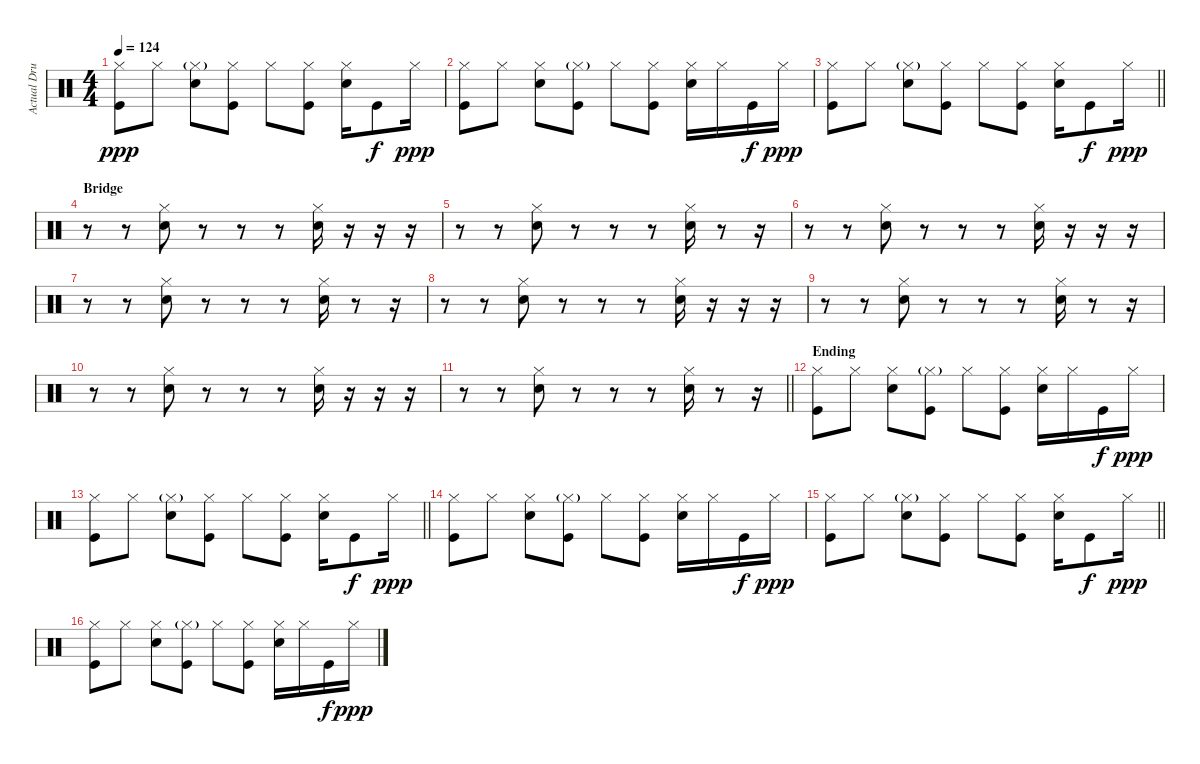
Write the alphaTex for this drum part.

\track ("Actual Drums" "Actual Dru") {instrument percussion}
\staff {score}
\articulation defaults
\ts (4 4)
\tempo 124
\clef neutral
\ks c
("Hi-Hat (closed)" "Kick (hit)").8{dy ppp} "Hi-Hat (closed)".8 ("Hi-Hat (closed)"{g} "Snare (hit) 2").8 ("Hi-Hat (closed)" "Kick (hit)").8 "Hi-Hat (closed)".8 ("Hi-Hat (closed)" "Kick (hit)").8 ("Hi-Hat (closed)" "Snare (hit) 2").16 "Kick (hit)".8{dy f} "Hi-Hat (closed)".16{dy ppp} |
("Hi-Hat (closed)" "Kick (hit)").8 "Hi-Hat (closed)".8 ("Hi-Hat (closed)" "Snare (hit) 2").8 ("Hi-Hat (closed)"{g} "Kick (hit)").8 "Hi-Hat (closed)".8 ("Hi-Hat (closed)" "Kick (hit)").8 ("Hi-Hat (closed)" "Snare (hit) 2").16 "Hi-Hat (closed)".16 "Kick (hit)".16{dy f} "Hi-Hat (closed)".16{dy ppp} |
\barLineRight lightlight
("Hi-Hat (closed)" "Kick (hit)").8 "Hi-Hat (closed)".8 ("Hi-Hat (closed)"{g} "Snare (hit) 2").8 ("Hi-Hat (closed)" "Kick (hit)").8 "Hi-Hat (closed)".8 ("Hi-Hat (closed)" "Kick (hit)").8 ("Hi-Hat (closed)" "Snare (hit) 2").16 "Kick (hit)".8{dy f} "Hi-Hat (closed)".16{dy ppp} |
\section ("" "Bridge")
r.8 r.8 ("Hi-Hat (closed)" "Snare (hit) 2").8 r.8 r.8 r.8 ("Hi-Hat (closed)" "Snare (hit) 2").16 r.16 r.16 r.16 |
r.8 r.8 ("Hi-Hat (closed)" "Snare (hit) 2").8 r.8 r.8 r.8 ("Hi-Hat (closed)" "Snare (hit) 2").16 r.8 r.16 |
r.8 r.8 ("Hi-Hat (closed)" "Snare (hit) 2").8 r.8 r.8 r.8 ("Hi-Hat (closed)" "Snare (hit) 2").16 r.16 r.16 r.16 |
r.8 r.8 ("Hi-Hat (closed)" "Snare (hit) 2").8 r.8 r.8 r.8 ("Hi-Hat (closed)" "Snare (hit) 2").16 r.8 r.16 |
r.8 r.8 ("Hi-Hat (closed)" "Snare (hit) 2").8 r.8 r.8 r.8 ("Hi-Hat (closed)" "Snare (hit) 2").16 r.16 r.16 r.16 |
r.8 r.8 ("Hi-Hat (closed)" "Snare (hit) 2").8 r.8 r.8 r.8 ("Hi-Hat (closed)" "Snare (hit) 2").16 r.8 r.16 |
r.8 r.8 ("Hi-Hat (closed)" "Snare (hit) 2").8 r.8 r.8 r.8 ("Hi-Hat (closed)" "Snare (hit) 2").16 r.16 r.16 r.16 |
\barLineRight lightlight
r.8 r.8 ("Hi-Hat (closed)" "Snare (hit) 2").8 r.8 r.8 r.8 ("Hi-Hat (closed)" "Snare (hit) 2").16 r.8 r.16 |
\section ("" "Ending")
("Hi-Hat (closed)" "Kick (hit)").8 "Hi-Hat (closed)".8 ("Hi-Hat (closed)" "Snare (hit) 2").8 ("Hi-Hat (closed)"{g} "Kick (hit)").8 "Hi-Hat (closed)".8 ("Hi-Hat (closed)" "Kick (hit)").8 ("Hi-Hat (closed)" "Snare (hit) 2").16 "Hi-Hat (closed)".16 "Kick (hit)".16{dy f} "Hi-Hat (closed)".16{dy ppp} |
\barLineRight lightlight
("Hi-Hat (closed)" "Kick (hit)").8 "Hi-Hat (closed)".8 ("Hi-Hat (closed)"{g} "Snare (hit) 2").8 ("Hi-Hat (closed)" "Kick (hit)").8 "Hi-Hat (closed)".8 ("Hi-Hat (closed)" "Kick (hit)").8 ("Hi-Hat (closed)" "Snare (hit) 2").16 "Kick (hit)".8{dy f} "Hi-Hat (closed)".16{dy ppp} |
("Hi-Hat (closed)" "Kick (hit)").8 "Hi-Hat (closed)".8 ("Hi-Hat (closed)" "Snare (hit) 2").8 ("Hi-Hat (closed)"{g} "Kick (hit)").8 "Hi-Hat (closed)".8 ("Hi-Hat (closed)" "Kick (hit)").8 ("Hi-Hat (closed)" "Snare (hit) 2").16 "Hi-Hat (closed)".16 "Kick (hit)".16{dy f} "Hi-Hat (closed)".16{dy ppp} |
\barLineRight lightlight
("Hi-Hat (closed)" "Kick (hit)").8 "Hi-Hat (closed)".8 ("Hi-Hat (closed)"{g} "Snare (hit) 2").8 ("Hi-Hat (closed)" "Kick (hit)").8 "Hi-Hat (closed)".8 ("Hi-Hat (closed)" "Kick (hit)").8 ("Hi-Hat (closed)" "Snare (hit) 2").16 "Kick (hit)".8{dy f} "Hi-Hat (closed)".16{dy ppp} |
("Hi-Hat (closed)" "Kick (hit)").8 "Hi-Hat (closed)".8 ("Hi-Hat (closed)" "Snare (hit) 2").8 ("Hi-Hat (closed)"{g} "Kick (hit)").8 "Hi-Hat (closed)".8 ("Hi-Hat (closed)" "Kick (hit)").8 ("Hi-Hat (closed)" "Snare (hit) 2").16 "Hi-Hat (closed)".16 "Kick (hit)".16{dy f} "Hi-Hat (closed)".16{dy ppp}
